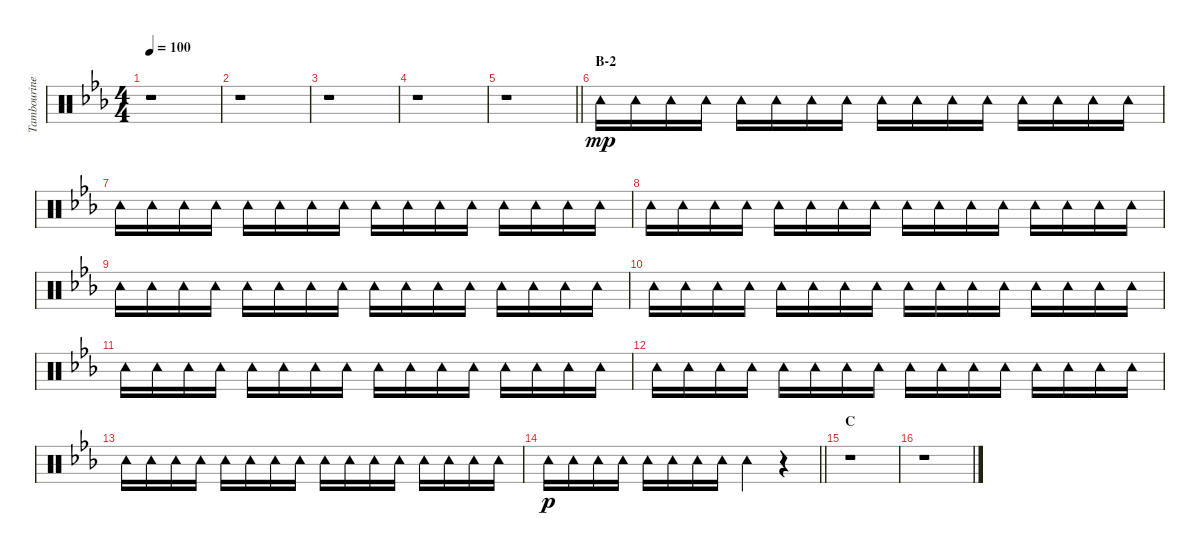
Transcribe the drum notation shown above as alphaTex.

\track ("Tambourine" "Tambourine") {instrument percussion}
\staff {score}
\articulation defaults
\ts (4 4)
\tempo 100
\clef neutral
\ks eb
r.1{dy mp} |
r.1 |
r.1 |
r.1 |
\barLineRight lightlight
r.1 |
\section ("" "B-2")
"Tambourine (hit)".16 "Tambourine (hit)".16 "Tambourine (hit)".16 "Tambourine (hit)".16 "Tambourine (hit)".16 "Tambourine (hit)".16 "Tambourine (hit)".16 "Tambourine (hit)".16 "Tambourine (hit)".16 "Tambourine (hit)".16 "Tambourine (hit)".16 "Tambourine (hit)".16 "Tambourine (hit)".16 "Tambourine (hit)".16 "Tambourine (hit)".16 "Tambourine (hit)".16 |
"Tambourine (hit)".16 "Tambourine (hit)".16 "Tambourine (hit)".16 "Tambourine (hit)".16 "Tambourine (hit)".16 "Tambourine (hit)".16 "Tambourine (hit)".16 "Tambourine (hit)".16 "Tambourine (hit)".16 "Tambourine (hit)".16 "Tambourine (hit)".16 "Tambourine (hit)".16 "Tambourine (hit)".16 "Tambourine (hit)".16 "Tambourine (hit)".16 "Tambourine (hit)".16 |
"Tambourine (hit)".16 "Tambourine (hit)".16 "Tambourine (hit)".16 "Tambourine (hit)".16 "Tambourine (hit)".16 "Tambourine (hit)".16 "Tambourine (hit)".16 "Tambourine (hit)".16 "Tambourine (hit)".16 "Tambourine (hit)".16 "Tambourine (hit)".16 "Tambourine (hit)".16 "Tambourine (hit)".16 "Tambourine (hit)".16 "Tambourine (hit)".16 "Tambourine (hit)".16 |
"Tambourine (hit)".16 "Tambourine (hit)".16 "Tambourine (hit)".16 "Tambourine (hit)".16 "Tambourine (hit)".16 "Tambourine (hit)".16 "Tambourine (hit)".16 "Tambourine (hit)".16 "Tambourine (hit)".16 "Tambourine (hit)".16 "Tambourine (hit)".16 "Tambourine (hit)".16 "Tambourine (hit)".16 "Tambourine (hit)".16 "Tambourine (hit)".16 "Tambourine (hit)".16 |
"Tambourine (hit)".16 "Tambourine (hit)".16 "Tambourine (hit)".16 "Tambourine (hit)".16 "Tambourine (hit)".16 "Tambourine (hit)".16 "Tambourine (hit)".16 "Tambourine (hit)".16 "Tambourine (hit)".16 "Tambourine (hit)".16 "Tambourine (hit)".16 "Tambourine (hit)".16 "Tambourine (hit)".16 "Tambourine (hit)".16 "Tambourine (hit)".16 "Tambourine (hit)".16 |
"Tambourine (hit)".16 "Tambourine (hit)".16 "Tambourine (hit)".16 "Tambourine (hit)".16 "Tambourine (hit)".16 "Tambourine (hit)".16 "Tambourine (hit)".16 "Tambourine (hit)".16 "Tambourine (hit)".16 "Tambourine (hit)".16 "Tambourine (hit)".16 "Tambourine (hit)".16 "Tambourine (hit)".16 "Tambourine (hit)".16 "Tambourine (hit)".16 "Tambourine (hit)".16 |
"Tambourine (hit)".16 "Tambourine (hit)".16 "Tambourine (hit)".16 "Tambourine (hit)".16 "Tambourine (hit)".16 "Tambourine (hit)".16 "Tambourine (hit)".16 "Tambourine (hit)".16 "Tambourine (hit)".16 "Tambourine (hit)".16 "Tambourine (hit)".16 "Tambourine (hit)".16 "Tambourine (hit)".16 "Tambourine (hit)".16 "Tambourine (hit)".16 "Tambourine (hit)".16 |
"Tambourine (hit)".16 "Tambourine (hit)".16 "Tambourine (hit)".16 "Tambourine (hit)".16 "Tambourine (hit)".16 "Tambourine (hit)".16 "Tambourine (hit)".16 "Tambourine (hit)".16 "Tambourine (hit)".16 "Tambourine (hit)".16 "Tambourine (hit)".16 "Tambourine (hit)".16 "Tambourine (hit)".16 "Tambourine (hit)".16 "Tambourine (hit)".16 "Tambourine (hit)".16 |
\barLineRight lightlight "Tambourine (hit)".16{dy p} "Tambourine (hit)".16 "Tambourine (hit)".16 "Tambourine (hit)".16 "Tambourine (hit)".16 "Tambourine (hit)".16 "Tambourine (hit)".16 "Tambourine (hit)".16 "Tambourine (hit)".4
r.4 |
\section ("" "C")
r.1 |
r.1
